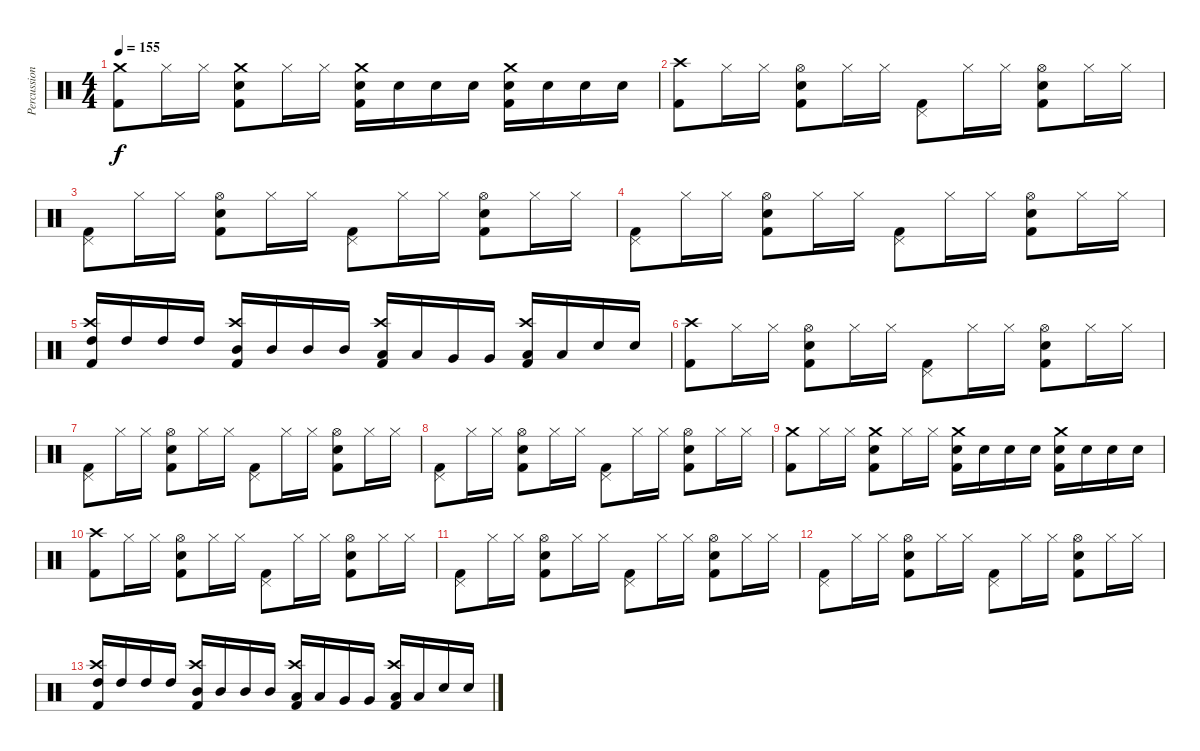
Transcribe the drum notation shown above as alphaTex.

\track ("Percussion" "Percussion") {instrument percussion}
\staff {score}
\articulation defaults
\ts (4 4)
\tempo 155
\clef neutral
\ks c
("Crash medium (hit)" "Kick (hit) 2").8{dy f} "Hi-Hat (closed)".16 "Hi-Hat (closed)".16 ("Crash medium (hit)" "Electric Snare (hit)" "Kick (hit) 2").8 "Hi-Hat (closed)".16 "Hi-Hat (closed)".16 ("Crash medium (hit)" "Electric Snare (hit)" "Kick (hit) 2").16 "Electric Snare (hit)".16 "Electric Snare (hit)".16 "Electric Snare (hit)".16 ("Crash medium (hit)" "Electric Snare (hit)" "Kick (hit) 2").16 "Electric Snare (hit)".16 "Electric Snare (hit)".16 "Electric Snare (hit)".16 |
("Crash high (hit)" "Kick (hit) 2").8 "Hi-Hat (closed)".16 "Hi-Hat (closed)".16 ("Hi-Hat (open)" "Electric Snare (hit)" "Kick (hit) 2").8 "Hi-Hat (closed)".16 "Hi-Hat (closed)".16 ("Pedal Hi-Hat (hit)" "Kick (hit) 2").8 "Hi-Hat (closed)".16 "Hi-Hat (closed)".16 ("Hi-Hat (open)" "Electric Snare (hit)" "Kick (hit) 2").8 "Hi-Hat (closed)".16 "Hi-Hat (closed)".16 |
("Pedal Hi-Hat (hit)" "Kick (hit) 2").8 "Hi-Hat (closed)".16 "Hi-Hat (closed)".16 ("Hi-Hat (open)" "Electric Snare (hit)" "Kick (hit) 2").8 "Hi-Hat (closed)".16 "Hi-Hat (closed)".16 ("Pedal Hi-Hat (hit)" "Kick (hit) 2").8 "Hi-Hat (closed)".16 "Hi-Hat (closed)".16 ("Hi-Hat (open)" "Electric Snare (hit)" "Kick (hit) 2").8 "Hi-Hat (closed)".16 "Hi-Hat (closed)".16 |
("Pedal Hi-Hat (hit)" "Kick (hit) 2").8 "Hi-Hat (closed)".16 "Hi-Hat (closed)".16 ("Hi-Hat (open)" "Electric Snare (hit)" "Kick (hit) 2").8 "Hi-Hat (closed)".16 "Hi-Hat (closed)".16 ("Pedal Hi-Hat (hit)" "Kick (hit) 2").8 "Hi-Hat (closed)".16 "Hi-Hat (closed)".16 ("Hi-Hat (open)" "Electric Snare (hit)" "Kick (hit) 2").8 "Hi-Hat (closed)".16 "Hi-Hat (closed)".16 |
("Crash high (hit)" "High Tom (hit)" "Kick (hit) 2").16 "High Tom (hit)".16 "High Tom (hit)".16 "High Tom (hit)".16 ("Crash high (hit)" "Mid Tom (hit)" "Kick (hit) 2").16 "Mid Tom (hit)".16 "Mid Tom (hit)".16 "Mid Tom (hit)".16 ("Crash high (hit)" "Low Tom (hit)" "Kick (hit) 2").16 "Low Tom (hit)".16 "Very Low Tom (hit)".16 "Very Low Tom (hit)".16 ("Crash high (hit)" "Low Floor Tom (hit)" "Kick (hit) 2").16 "Low Floor Tom (hit)".16 "Electric Snare (hit)".16 "Electric Snare (hit)".16 |
("Crash high (hit)" "Kick (hit) 2").8 "Hi-Hat (closed)".16 "Hi-Hat (closed)".16 ("Hi-Hat (open)" "Electric Snare (hit)" "Kick (hit) 2").8 "Hi-Hat (closed)".16 "Hi-Hat (closed)".16 ("Pedal Hi-Hat (hit)" "Kick (hit) 2").8 "Hi-Hat (closed)".16 "Hi-Hat (closed)".16 ("Hi-Hat (open)" "Electric Snare (hit)" "Kick (hit) 2").8 "Hi-Hat (closed)".16 "Hi-Hat (closed)".16 |
("Pedal Hi-Hat (hit)" "Kick (hit) 2").8 "Hi-Hat (closed)".16 "Hi-Hat (closed)".16 ("Hi-Hat (open)" "Electric Snare (hit)" "Kick (hit) 2").8 "Hi-Hat (closed)".16 "Hi-Hat (closed)".16 ("Pedal Hi-Hat (hit)" "Kick (hit) 2").8 "Hi-Hat (closed)".16 "Hi-Hat (closed)".16 ("Hi-Hat (open)" "Electric Snare (hit)" "Kick (hit) 2").8 "Hi-Hat (closed)".16 "Hi-Hat (closed)".16 |
("Pedal Hi-Hat (hit)" "Kick (hit) 2").8 "Hi-Hat (closed)".16 "Hi-Hat (closed)".16 ("Hi-Hat (open)" "Electric Snare (hit)" "Kick (hit) 2").8 "Hi-Hat (closed)".16 "Hi-Hat (closed)".16 ("Pedal Hi-Hat (hit)" "Kick (hit) 2").8 "Hi-Hat (closed)".16 "Hi-Hat (closed)".16 ("Hi-Hat (open)" "Electric Snare (hit)" "Kick (hit) 2").8 "Hi-Hat (closed)".16 "Hi-Hat (closed)".16 |
("Crash medium (hit)" "Kick (hit) 2").8 "Hi-Hat (closed)".16 "Hi-Hat (closed)".16 ("Crash medium (hit)" "Electric Snare (hit)" "Kick (hit) 2").8 "Hi-Hat (closed)".16 "Hi-Hat (closed)".16 ("Crash medium (hit)" "Electric Snare (hit)" "Kick (hit) 2").16 "Electric Snare (hit)".16 "Electric Snare (hit)".16 "Electric Snare (hit)".16 ("Crash medium (hit)" "Electric Snare (hit)" "Kick (hit) 2").16 "Electric Snare (hit)".16 "Electric Snare (hit)".16 "Electric Snare (hit)".16 |
("Crash high (hit)" "Kick (hit) 2").8 "Hi-Hat (closed)".16 "Hi-Hat (closed)".16 ("Hi-Hat (open)" "Electric Snare (hit)" "Kick (hit) 2").8 "Hi-Hat (closed)".16 "Hi-Hat (closed)".16 ("Pedal Hi-Hat (hit)" "Kick (hit) 2").8 "Hi-Hat (closed)".16 "Hi-Hat (closed)".16 ("Hi-Hat (open)" "Electric Snare (hit)" "Kick (hit) 2").8 "Hi-Hat (closed)".16 "Hi-Hat (closed)".16 |
("Pedal Hi-Hat (hit)" "Kick (hit) 2").8 "Hi-Hat (closed)".16 "Hi-Hat (closed)".16 ("Hi-Hat (open)" "Electric Snare (hit)" "Kick (hit) 2").8 "Hi-Hat (closed)".16 "Hi-Hat (closed)".16 ("Pedal Hi-Hat (hit)" "Kick (hit) 2").8 "Hi-Hat (closed)".16 "Hi-Hat (closed)".16 ("Hi-Hat (open)" "Electric Snare (hit)" "Kick (hit) 2").8 "Hi-Hat (closed)".16 "Hi-Hat (closed)".16 |
("Pedal Hi-Hat (hit)" "Kick (hit) 2").8 "Hi-Hat (closed)".16 "Hi-Hat (closed)".16 ("Hi-Hat (open)" "Electric Snare (hit)" "Kick (hit) 2").8 "Hi-Hat (closed)".16 "Hi-Hat (closed)".16 ("Pedal Hi-Hat (hit)" "Kick (hit) 2").8 "Hi-Hat (closed)".16 "Hi-Hat (closed)".16 ("Hi-Hat (open)" "Electric Snare (hit)" "Kick (hit) 2").8 "Hi-Hat (closed)".16 "Hi-Hat (closed)".16 |
("Crash high (hit)" "High Tom (hit)" "Kick (hit) 2").16 "High Tom (hit)".16 "High Tom (hit)".16 "High Tom (hit)".16 ("Crash high (hit)" "Mid Tom (hit)" "Kick (hit) 2").16 "Mid Tom (hit)".16 "Mid Tom (hit)".16 "Mid Tom (hit)".16 ("Crash high (hit)" "Low Tom (hit)" "Kick (hit) 2").16 "Low Tom (hit)".16 "Very Low Tom (hit)".16 "Very Low Tom (hit)".16 ("Crash high (hit)" "Low Floor Tom (hit)" "Kick (hit) 2").16 "Low Floor Tom (hit)".16 "Electric Snare (hit)".16 "Electric Snare (hit)".16
